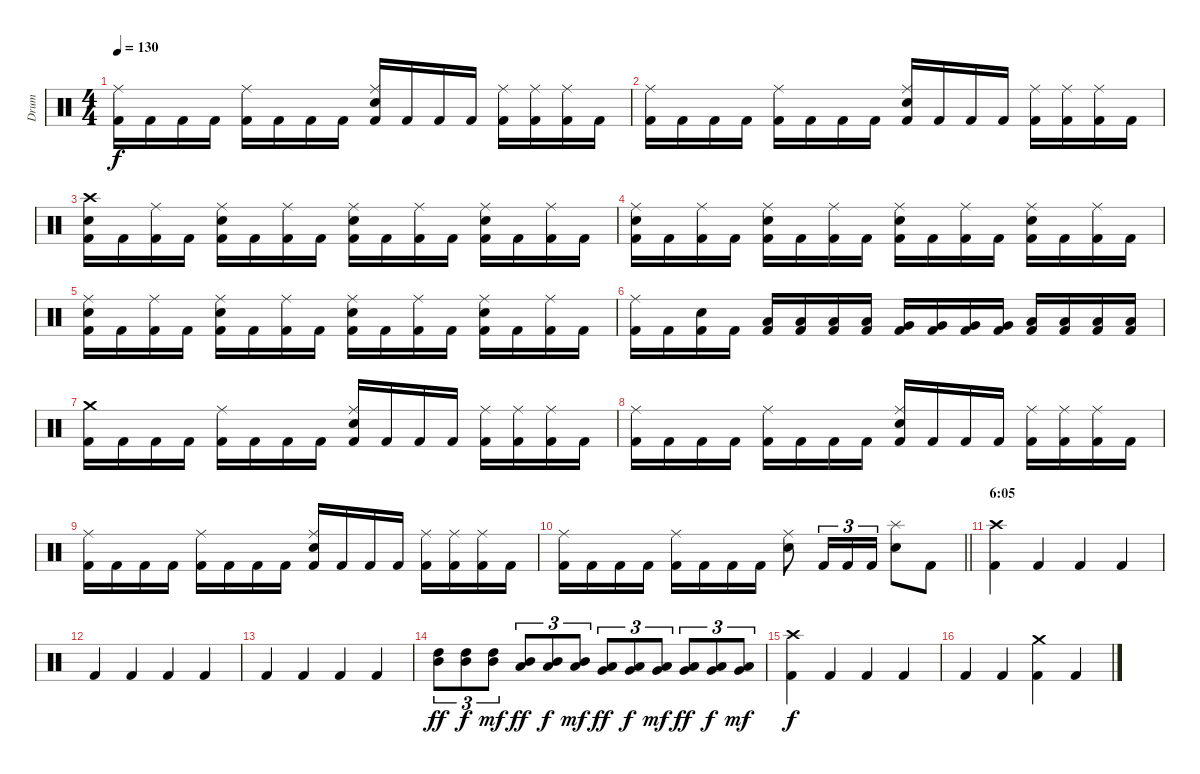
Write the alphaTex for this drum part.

\track ("Drum" "Drum") {instrument percussion}
\staff {score}
\articulation defaults
\ts (4 4)
\tempo 130
\clef neutral
\ks c
("Kick (hit) 2" "Ride (middle)").16{dy f} "Kick (hit) 2".16 "Kick (hit) 2".16 "Kick (hit) 2".16 ("Kick (hit) 2" "Ride (middle)").16 "Kick (hit) 2".16 "Kick (hit) 2".16 "Kick (hit) 2".16 ("Kick (hit) 2" "Electric Snare (hit)" "Ride (middle)").16 "Kick (hit) 2".16 "Kick (hit) 2".16 "Kick (hit) 2".16 ("Kick (hit) 2" "Ride (middle)").16 ("Kick (hit) 2" "Ride (middle)").16 ("Kick (hit) 2" "Ride (middle)").16 "Kick (hit) 2".16 |
("Kick (hit) 2" "Ride (middle)").16 "Kick (hit) 2".16 "Kick (hit) 2".16 "Kick (hit) 2".16 ("Kick (hit) 2" "Ride (middle)").16 "Kick (hit) 2".16 "Kick (hit) 2".16 "Kick (hit) 2".16 ("Kick (hit) 2" "Electric Snare (hit)" "Ride (middle)").16 "Kick (hit) 2".16 "Kick (hit) 2".16 "Kick (hit) 2".16 ("Kick (hit) 2" "Ride (middle)").16 ("Kick (hit) 2" "Ride (middle)").16 ("Kick (hit) 2" "Ride (middle)").16 "Kick (hit) 2".16 |
("Kick (hit) 2" "Electric Snare (hit)" "Crash high (hit)").16 "Kick (hit) 2".16 ("Kick (hit) 2" "Ride (middle)").16 "Kick (hit) 2".16 ("Kick (hit) 2" "Electric Snare (hit)" "Ride (middle)").16 "Kick (hit) 2".16 ("Kick (hit) 2" "Ride (middle)").16 "Kick (hit) 2".16 ("Kick (hit) 2" "Electric Snare (hit)" "Ride (middle)").16 "Kick (hit) 2".16 ("Kick (hit) 2" "Ride (middle)").16 "Kick (hit) 2".16 ("Kick (hit) 2" "Electric Snare (hit)" "Ride (middle)").16 "Kick (hit) 2".16 ("Kick (hit) 2" "Ride (middle)").16 "Kick (hit) 2".16 |
("Kick (hit) 2" "Electric Snare (hit)" "Ride (middle)").16 "Kick (hit) 2".16 ("Kick (hit) 2" "Ride (middle)").16 "Kick (hit) 2".16 ("Kick (hit) 2" "Electric Snare (hit)" "Ride (middle)").16 "Kick (hit) 2".16 ("Kick (hit) 2" "Ride (middle)").16 "Kick (hit) 2".16 ("Kick (hit) 2" "Electric Snare (hit)" "Ride (middle)").16 "Kick (hit) 2".16 ("Kick (hit) 2" "Ride (middle)").16 "Kick (hit) 2".16 ("Kick (hit) 2" "Electric Snare (hit)" "Ride (middle)").16 "Kick (hit) 2".16 ("Kick (hit) 2" "Ride (middle)").16 "Kick (hit) 2".16 |
("Kick (hit) 2" "Electric Snare (hit)" "Ride (middle)").16 "Kick (hit) 2".16 ("Kick (hit) 2" "Ride (middle)").16 "Kick (hit) 2".16 ("Kick (hit) 2" "Electric Snare (hit)" "Ride (middle)").16 "Kick (hit) 2".16 ("Kick (hit) 2" "Ride (middle)").16 "Kick (hit) 2".16 ("Kick (hit) 2" "Electric Snare (hit)" "Ride (middle)").16 "Kick (hit) 2".16 ("Kick (hit) 2" "Ride (middle)").16 "Kick (hit) 2".16 ("Kick (hit) 2" "Electric Snare (hit)" "Ride (middle)").16 "Kick (hit) 2".16 ("Kick (hit) 2" "Ride (middle)").16 "Kick (hit) 2".16 |
("Kick (hit) 2" "Ride (middle)").16 "Kick (hit) 2".16 ("Kick (hit) 2" "Electric Snare (hit)").16 "Kick (hit) 2".16 ("Kick (hit) 2" "Low Tom (hit)").16 ("Kick (hit) 2" "Low Tom (hit)").16 ("Kick (hit) 2" "Low Tom (hit)").16 ("Kick (hit) 2" "Low Tom (hit)").16 ("Kick (hit) 2" "Very Low Tom (hit)").16 ("Kick (hit) 2" "Very Low Tom (hit)").16 ("Kick (hit) 2" "Very Low Tom (hit)").16 ("Kick (hit) 2" "Very Low Tom (hit)").16 ("Kick (hit) 2" "Low Floor Tom (hit)").16 ("Kick (hit) 2" "Low Floor Tom (hit)").16 ("Kick (hit) 2" "Low Floor Tom (hit)").16 ("Kick (hit) 2" "Low Floor Tom (hit)").16 |
("Kick (hit) 2" "Crash medium (hit)").16 "Kick (hit) 2".16 "Kick (hit) 2".16 "Kick (hit) 2".16 ("Kick (hit) 2" "Ride (middle)").16 "Kick (hit) 2".16 "Kick (hit) 2".16 "Kick (hit) 2".16 ("Kick (hit) 2" "Electric Snare (hit)" "Ride (middle)").16 "Kick (hit) 2".16 "Kick (hit) 2".16 "Kick (hit) 2".16 ("Kick (hit) 2" "Ride (middle)").16 ("Kick (hit) 2" "Ride (middle)").16 ("Kick (hit) 2" "Ride (middle)").16 "Kick (hit) 2".16 |
("Kick (hit) 2" "Ride (middle)").16 "Kick (hit) 2".16 "Kick (hit) 2".16 "Kick (hit) 2".16 ("Kick (hit) 2" "Ride (middle)").16 "Kick (hit) 2".16 "Kick (hit) 2".16 "Kick (hit) 2".16 ("Kick (hit) 2" "Electric Snare (hit)" "Ride (middle)").16 "Kick (hit) 2".16 "Kick (hit) 2".16 "Kick (hit) 2".16 ("Kick (hit) 2" "Ride (middle)").16 ("Kick (hit) 2" "Ride (middle)").16 ("Kick (hit) 2" "Ride (middle)").16 "Kick (hit) 2".16 |
("Kick (hit) 2" "Ride (middle)").16 "Kick (hit) 2".16 "Kick (hit) 2".16 "Kick (hit) 2".16 ("Kick (hit) 2" "Ride (middle)").16 "Kick (hit) 2".16 "Kick (hit) 2".16 "Kick (hit) 2".16 ("Kick (hit) 2" "Electric Snare (hit)" "Ride (middle)").16 "Kick (hit) 2".16 "Kick (hit) 2".16 "Kick (hit) 2".16 ("Kick (hit) 2" "Ride (middle)").16 ("Kick (hit) 2" "Ride (middle)").16 ("Kick (hit) 2" "Ride (middle)").16 "Kick (hit) 2".16 |
\barLineRight lightlight
("Kick (hit) 2" "Ride (middle)").16 "Kick (hit) 2".16 "Kick (hit) 2".16 "Kick (hit) 2".16 ("Kick (hit) 2" "Ride (middle)").16 "Kick (hit) 2".16 "Kick (hit) 2".16 "Kick (hit) 2".16 ("Electric Snare (hit)" "Ride (middle)").8 "Kick (hit) 2".16{tu (3 2)} "Kick (hit) 2".16{tu (3 2)} "Kick (hit) 2".16{tu (3 2)} ("Electric Snare (hit)" "Splash (hit)").8 "Kick (hit) 2".8 |
\section ("" "6:05")
("Kick (hit) 2" "Crash high (hit)").4 "Kick (hit) 2".4 "Kick (hit) 2".4 "Kick (hit) 2".4 |
"Kick (hit) 2".4 "Kick (hit) 2".4 "Kick (hit) 2".4 "Kick (hit) 2".4 |
"Kick (hit) 2".4 "Kick (hit) 2".4 "Kick (hit) 2".4 "Kick (hit) 2".4 |
("High Tom (hit)" "Mid Tom (hit)").8{tu (3 2) dy ff} ("High Tom (hit)" "Mid Tom (hit)").8{tu (3 2) dy f} ("High Tom (hit)" "Mid Tom (hit)").8{tu (3 2) dy mf} ("Mid Tom (hit)" "Low Tom (hit)").8{tu (3 2) dy ff} ("Mid Tom (hit)" "Low Tom (hit)").8{tu (3 2) dy f} ("Mid Tom (hit)" "Low Tom (hit)").8{tu (3 2) dy mf} ("Low Tom (hit)" "Very Low Tom (hit)").8{tu (3 2) dy ff} ("Low Tom (hit)" "Very Low Tom (hit)").8{tu (3 2) dy f} ("Low Tom (hit)" "Very Low Tom (hit)").8{tu (3 2) dy mf} ("Very Low Tom (hit)" "Low Floor Tom (hit)").8{tu (3 2) dy ff} ("Very Low Tom (hit)" "Low Floor Tom (hit)").8{tu (3 2) dy f} ("Very Low Tom (hit)" "Low Floor Tom (hit)").8{tu (3 2) dy mf} |
("Kick (hit) 2" "Crash high (hit)").4{dy f} "Kick (hit) 2".4 "Kick (hit) 2".4 "Kick (hit) 2".4 |
"Kick (hit) 2".4 "Kick (hit) 2".4 ("Kick (hit) 2" "Crash medium (hit)").4 "Kick (hit) 2".4
